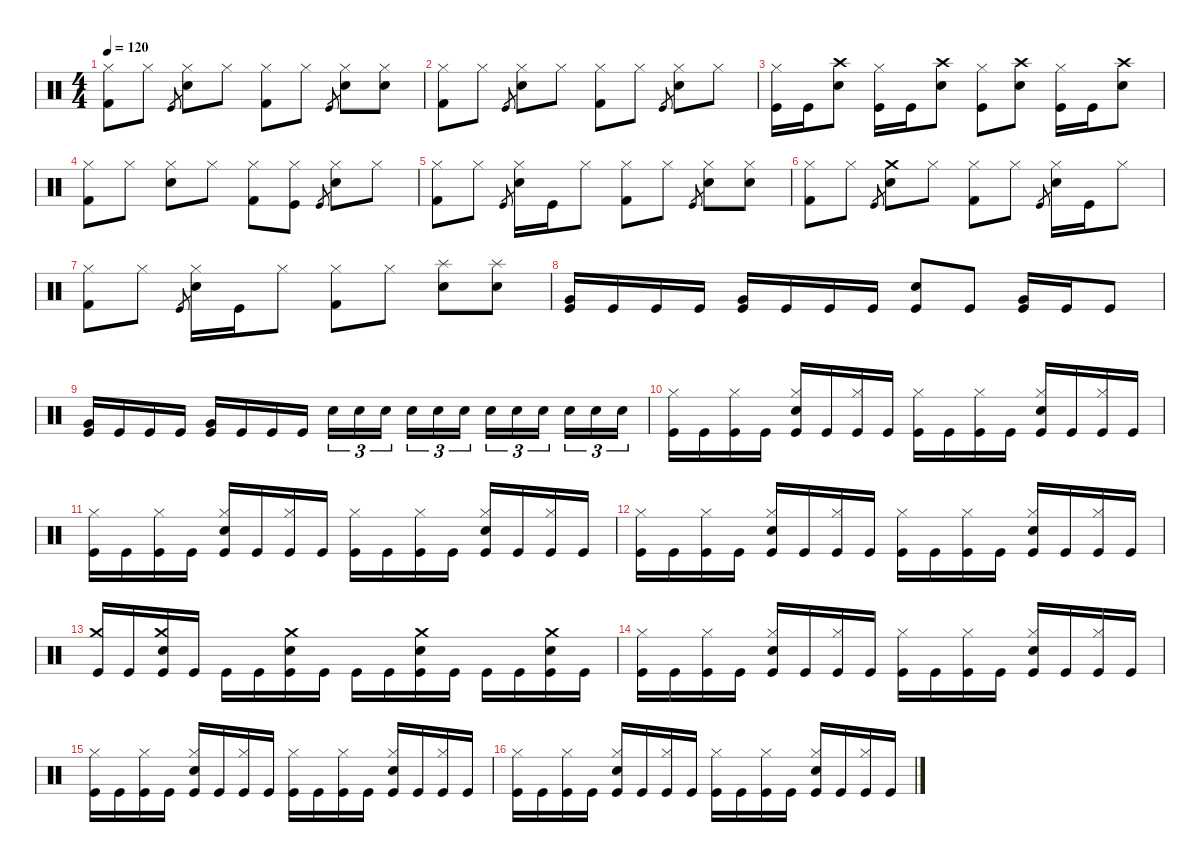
\defaultSystemsLayout 4
\hideDynamics
\bracketExtendMode nobrackets
\singleTrackTrackNamePolicy hidden
\multiTrackTrackNamePolicy hidden
\otherSystemsTrackNameOrientation horizontal
\track ("Ulrich" "drm.") {instrument percussion}
\staff {score}
\articulation defaults
\ts (4 4)
\tempo 120
\clef neutral
\ks c
("Hi-Hat (closed)" "Kick (hit) 2").8{dy f beam Down} "Hi-Hat (closed)".8{beam Down} "Kick (hit)".8{gr dy ff beam Up} ("Hi-Hat (closed)" "Snare (hit) 2").8{dy f beam Down} "Hi-Hat (closed)".8{beam Down} ("Hi-Hat (closed)" "Kick (hit) 2").8{beam Down} "Hi-Hat (closed)".8{beam Down} "Kick (hit)".8{gr dy ff beam Up} ("Hi-Hat (closed)" "Snare (hit) 2").8{dy f beam Down} ("Hi-Hat (closed)" "Snare (hit) 2").8{beam Down} |
("Hi-Hat (closed)" "Kick (hit) 2").8{beam Down} "Hi-Hat (closed)".8{beam Down} "Kick (hit)".8{gr dy ff beam Up} ("Hi-Hat (closed)" "Snare (hit) 2").8{dy f beam Down} "Hi-Hat (closed)".8{beam Down} ("Hi-Hat (closed)" "Kick (hit) 2").8{beam Down} "Hi-Hat (closed)".8{beam Down} "Kick (hit)".8{gr dy ff beam Up} ("Hi-Hat (closed)" "Snare (hit) 2").8{dy f beam Down} "Hi-Hat (closed)".8{beam Down} |
("Hi-Hat (closed)" "Kick (hit)").16{beam Down} "Kick (hit)".16{dy fff beam Down} ("Crash high (hit)" "Snare (hit) 2").8{dy f beam Down} ("Hi-Hat (closed)" "Kick (hit)").16{beam Down} "Kick (hit)".16{dy fff beam Down} ("Crash high (hit)" "Snare (hit) 2").8{dy f beam Down} ("Hi-Hat (closed)" "Kick (hit)").8{beam Down} ("Crash high (hit)" "Snare (hit) 2").8{beam Down} ("Hi-Hat (closed)" "Kick (hit)").16{beam Down} "Kick (hit)".16{dy fff beam Down} ("Crash high (hit)" "Snare (hit) 2").8{dy f beam Down} |
("Hi-Hat (closed)" "Kick (hit) 2").8{beam Down} "Hi-Hat (closed)".8{beam Down} ("Hi-Hat (closed)" "Snare (hit) 2").8{beam Down} "Hi-Hat (closed)".8{beam Down} ("Hi-Hat (closed)" "Kick (hit) 2").8{beam Down} ("Hi-Hat (closed)" "Kick (hit)").8{beam Down} "Kick (hit)".8{gr dy ff beam Up} ("Hi-Hat (closed)" "Snare (hit) 2").8{dy f beam Down} "Hi-Hat (closed)".8{beam Down} |
("Hi-Hat (closed)" "Kick (hit) 2").8{beam Down} "Hi-Hat (closed)".8{beam Down} "Kick (hit)".8{gr dy ff beam Up} ("Hi-Hat (closed)" "Snare (hit) 2").16{dy f beam Down} "Kick (hit)".16{dy fff beam Down} "Hi-Hat (closed)".8{dy f beam Down} ("Hi-Hat (closed)" "Kick (hit) 2").8{beam Down} "Hi-Hat (closed)".8{beam Down} "Kick (hit)".8{gr dy ff beam Up} ("Hi-Hat (closed)" "Snare (hit) 2").8{dy f beam Down} ("Hi-Hat (closed)" "Snare (hit) 2").8{beam Down} |
("Hi-Hat (closed)" "Kick (hit) 2").8{beam Down} "Hi-Hat (closed)".8{beam Down} "Kick (hit)".8{gr dy ff beam Up} ("Crash medium (hit)" "Snare (hit) 2").8{dy f beam Down} "Hi-Hat (closed)".8{beam Down} ("Hi-Hat (closed)" "Kick (hit) 2").8{beam Down} "Hi-Hat (closed)".8{beam Down} "Kick (hit)".8{gr dy ff beam Up} ("Hi-Hat (closed)" "Snare (hit) 2").16{dy f beam Down} "Kick (hit)".16{beam Down} "Hi-Hat (closed)".8{beam Down} |
("Hi-Hat (closed)" "Kick (hit) 2").8{beam Down} "Hi-Hat (closed)".8{beam Down} "Kick (hit)".8{gr dy ff beam Up} ("Hi-Hat (closed)" "Snare (hit) 2").16{dy f beam Down} "Kick (hit)".16{dy fff beam Down} "Hi-Hat (closed)".8{dy f beam Down} ("Hi-Hat (closed)" "Kick (hit) 2").8{beam Down} "Hi-Hat (closed)".8{beam Down} ("Splash (hit)" "Snare (hit) 2").8{dy fff beam Down} ("Splash (hit)" "Snare (hit) 2").8{beam Down} |
("Kick (hit)" "Very Low Tom (hit)").16{beam Up} "Kick (hit)".16{beam Up} "Kick (hit)".16{beam Up} "Kick (hit)".16{beam Up} ("Kick (hit)" "Very Low Tom (hit)").16{beam Up} "Kick (hit)".16{beam Up} "Kick (hit)".16{beam Up} "Kick (hit)".16{beam Up} ("Kick (hit)" "Snare (hit) 2").8{beam Up} "Kick (hit)".8{beam Up} ("Kick (hit)" "Very Low Tom (hit)").16{beam Up} "Kick (hit)".16{beam Up} "Kick (hit)".8{beam Up} |
("Kick (hit)" "Very Low Tom (hit)").16{beam Up} "Kick (hit)".16{beam Up} "Kick (hit)".16{beam Up} "Kick (hit)".16{beam Up} ("Kick (hit)" "Very Low Tom (hit)").16{beam Up} "Kick (hit)".16{beam Up} "Kick (hit)".16{beam Up} "Kick (hit)".16{beam Up} "Snare (hit) 2".16{tu (3 2) dy mf beam Down} "Snare (hit) 2".16{tu (3 2) beam Down} "Snare (hit) 2".16{tu (3 2) beam Down} "Snare (hit) 2".16{tu (3 2) beam Down} "Snare (hit) 2".16{tu (3 2) beam Down} "Snare (hit) 2".16{tu (3 2) beam Down} "Snare (hit) 2".16{tu (3 2) beam Down} "Snare (hit) 2".16{tu (3 2) beam Down} "Snare (hit) 2".16{tu (3 2) beam Down} "Snare (hit) 2".16{tu (3 2) beam Down} "Snare (hit) 2".16{tu (3 2) beam Down} "Snare (hit) 2".16{tu (3 2) beam Down} |
("Hi-Hat (closed)" "Kick (hit)").16{dy f beam Down} "Kick (hit)".16{dy fff beam Down} ("Hi-Hat (closed)" "Kick (hit)").16{dy f beam Down} "Kick (hit)".16{dy fff beam Down} ("Hi-Hat (closed)" "Kick (hit)" "Snare (hit) 2").16{dy f beam Up} "Kick (hit)".16{dy fff beam Up} ("Hi-Hat (closed)" "Kick (hit)").16{dy f beam Up} "Kick (hit)".16{dy fff beam Up} ("Hi-Hat (closed)" "Kick (hit)").16{dy f beam Down} "Kick (hit)".16{dy fff beam Down} ("Hi-Hat (closed)" "Kick (hit)").16{dy f beam Down} "Kick (hit)".16{dy fff beam Down} ("Hi-Hat (closed)" "Kick (hit)" "Snare (hit) 2").16{dy f beam Up} "Kick (hit)".16{dy fff beam Up} ("Hi-Hat (closed)" "Kick (hit)").16{dy f beam Up} "Kick (hit)".16{beam Up} |
("Hi-Hat (closed)" "Kick (hit)").16{beam Down} "Kick (hit)".16{dy fff beam Down} ("Hi-Hat (closed)" "Kick (hit)").16{dy f beam Down} "Kick (hit)".16{dy fff beam Down} ("Hi-Hat (closed)" "Kick (hit)" "Snare (hit) 2").16{dy f beam Up} "Kick (hit)".16{dy fff beam Up} ("Hi-Hat (closed)" "Kick (hit)").16{dy f beam Up} "Kick (hit)".16{dy fff beam Up} ("Hi-Hat (closed)" "Kick (hit)").16{dy f beam Down} "Kick (hit)".16{dy fff beam Down} ("Hi-Hat (closed)" "Kick (hit)").16{dy f beam Down} "Kick (hit)".16{dy fff beam Down} ("Hi-Hat (closed)" "Kick (hit)" "Snare (hit) 2").16{dy f beam Up} "Kick (hit)".16{dy fff beam Up} ("Hi-Hat (closed)" "Kick (hit)").16{dy f beam Up} "Kick (hit)".16{beam Up} |
("Hi-Hat (closed)" "Kick (hit)").16{beam Down} "Kick (hit)".16{dy fff beam Down} ("Hi-Hat (closed)" "Kick (hit)").16{dy f beam Down} "Kick (hit)".16{dy fff beam Down} ("Hi-Hat (closed)" "Kick (hit)" "Snare (hit) 2").16{dy f beam Up} "Kick (hit)".16{dy fff beam Up} ("Hi-Hat (closed)" "Kick (hit)").16{dy f beam Up} "Kick (hit)".16{dy fff beam Up} ("Hi-Hat (closed)" "Kick (hit)").16{dy f beam Down} "Kick (hit)".16{dy fff beam Down} ("Hi-Hat (closed)" "Kick (hit)").16{dy f beam Down} "Kick (hit)".16{dy fff beam Down} ("Hi-Hat (closed)" "Kick (hit)" "Snare (hit) 2").16{dy f beam Up} "Kick (hit)".16{dy fff beam Up} ("Hi-Hat (closed)" "Kick (hit)").16{dy f beam Up} "Kick (hit)".16{beam Up} |
("Crash medium (hit)" "Kick (hit)").16{beam Up} "Kick (hit)".16{dy fff beam Up} ("Crash medium (hit)" "Kick (hit)" "Snare (hit) 2").16{dy f beam Up} "Kick (hit)".16{dy fff beam Up} "Kick (hit)".16{beam Down} "Kick (hit)".16{beam Down} ("Crash medium (hit)" "Kick (hit)" "Snare (hit) 2").16{dy f beam Down} "Kick (hit)".16{dy fff beam Down} "Kick (hit)".16{beam Down} "Kick (hit)".16{beam Down} ("Crash medium (hit)" "Kick (hit)" "Snare (hit) 2").16{dy f beam Down} "Kick (hit)".16{dy fff beam Down} "Kick (hit)".16{beam Down} "Kick (hit)".16{beam Down} ("Crash medium (hit)" "Kick (hit)" "Snare (hit) 2").16{dy f beam Down} "Kick (hit)".16{beam Down} |
("Hi-Hat (closed)" "Kick (hit)").16{beam Down} "Kick (hit)".16{dy fff beam Down} ("Hi-Hat (closed)" "Kick (hit)").16{dy f beam Down} "Kick (hit)".16{dy fff beam Down} ("Hi-Hat (closed)" "Kick (hit)" "Snare (hit) 2").16{dy f beam Up} "Kick (hit)".16{dy fff beam Up} ("Hi-Hat (closed)" "Kick (hit)").16{dy f beam Up} "Kick (hit)".16{dy fff beam Up} ("Hi-Hat (closed)" "Kick (hit)").16{dy f beam Down} "Kick (hit)".16{dy fff beam Down} ("Hi-Hat (closed)" "Kick (hit)").16{dy f beam Down} "Kick (hit)".16{dy fff beam Down} ("Hi-Hat (closed)" "Kick (hit)" "Snare (hit) 2").16{dy f beam Up} "Kick (hit)".16{dy fff beam Up} ("Hi-Hat (closed)" "Kick (hit)").16{dy f beam Up} "Kick (hit)".16{beam Up} |
("Hi-Hat (closed)" "Kick (hit)").16{beam Down} "Kick (hit)".16{dy fff beam Down} ("Hi-Hat (closed)" "Kick (hit)").16{dy f beam Down} "Kick (hit)".16{dy fff beam Down} ("Hi-Hat (closed)" "Kick (hit)" "Snare (hit) 2").16{dy f beam Up} "Kick (hit)".16{dy fff beam Up} ("Hi-Hat (closed)" "Kick (hit)").16{dy f beam Up} "Kick (hit)".16{dy fff beam Up} ("Hi-Hat (closed)" "Kick (hit)").16{dy f beam Down} "Kick (hit)".16{dy fff beam Down} ("Hi-Hat (closed)" "Kick (hit)").16{dy f beam Down} "Kick (hit)".16{dy fff beam Down} ("Hi-Hat (closed)" "Kick (hit)" "Snare (hit) 2").16{dy f beam Up} "Kick (hit)".16{dy fff beam Up} ("Hi-Hat (closed)" "Kick (hit)").16{dy f beam Up} "Kick (hit)".16{beam Up} |
("Hi-Hat (closed)" "Kick (hit)").16{beam Down} "Kick (hit)".16{dy fff beam Down} ("Hi-Hat (closed)" "Kick (hit)").16{dy f beam Down} "Kick (hit)".16{dy fff beam Down} ("Hi-Hat (closed)" "Kick (hit)" "Snare (hit) 2").16{dy f beam Up} "Kick (hit)".16{dy fff beam Up} ("Hi-Hat (closed)" "Kick (hit)").16{dy f beam Up} "Kick (hit)".16{dy fff beam Up} ("Hi-Hat (closed)" "Kick (hit)").16{dy f beam Down} "Kick (hit)".16{dy fff beam Down} ("Hi-Hat (closed)" "Kick (hit)").16{dy f beam Down} "Kick (hit)".16{dy fff beam Down} ("Hi-Hat (closed)" "Kick (hit)" "Snare (hit) 2").16{dy f beam Up} "Kick (hit)".16{dy fff beam Up} ("Hi-Hat (closed)" "Kick (hit)").16{dy f beam Up} "Kick (hit)".16{beam Up}
